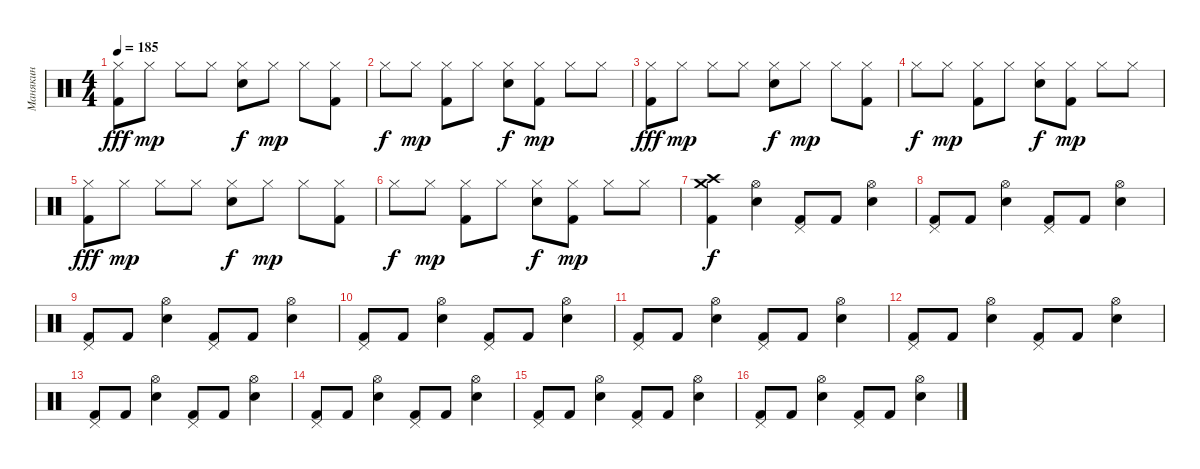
\track ("Манякин" "Манякин") {instrument percussion}
\staff {score}
\articulation defaults
\ts (4 4)
\tempo 185
\clef neutral
\ks c
("Hi-Hat (closed)" "Kick (hit) 2").8{dy fff} "Hi-Hat (closed)".8{dy mp} "Hi-Hat (closed)".8 "Hi-Hat (closed)".8 ("Hi-Hat (closed)" "Electric Snare (hit)").8{dy f} "Hi-Hat (closed)".8{dy mp} "Hi-Hat (closed)".8 ("Hi-Hat (closed)" "Kick (hit) 2").8 |
"Hi-Hat (closed)".8{dy f} "Hi-Hat (closed)".8{dy mp} ("Hi-Hat (closed)" "Kick (hit) 2").8 "Hi-Hat (closed)".8 ("Hi-Hat (closed)" "Electric Snare (hit)").8{dy f} ("Hi-Hat (closed)" "Kick (hit) 2").8{dy mp} "Hi-Hat (closed)".8 "Hi-Hat (closed)".8 |
("Hi-Hat (closed)" "Kick (hit) 2").8{dy fff} "Hi-Hat (closed)".8{dy mp} "Hi-Hat (closed)".8 "Hi-Hat (closed)".8 ("Hi-Hat (closed)" "Electric Snare (hit)").8{dy f} "Hi-Hat (closed)".8{dy mp} "Hi-Hat (closed)".8 ("Hi-Hat (closed)" "Kick (hit) 2").8 |
"Hi-Hat (closed)".8{dy f} "Hi-Hat (closed)".8{dy mp} ("Hi-Hat (closed)" "Kick (hit) 2").8 "Hi-Hat (closed)".8 ("Hi-Hat (closed)" "Electric Snare (hit)").8{dy f} ("Hi-Hat (closed)" "Kick (hit) 2").8{dy mp} "Hi-Hat (closed)".8 "Hi-Hat (closed)".8 |
("Hi-Hat (closed)" "Kick (hit) 2").8{dy fff} "Hi-Hat (closed)".8{dy mp} "Hi-Hat (closed)".8 "Hi-Hat (closed)".8 ("Hi-Hat (closed)" "Electric Snare (hit)").8{dy f} "Hi-Hat (closed)".8{dy mp} "Hi-Hat (closed)".8 ("Hi-Hat (closed)" "Kick (hit) 2").8 |
"Hi-Hat (closed)".8{dy f} "Hi-Hat (closed)".8{dy mp} ("Hi-Hat (closed)" "Kick (hit) 2").8 "Hi-Hat (closed)".8 ("Hi-Hat (closed)" "Electric Snare (hit)").8{dy f} ("Hi-Hat (closed)" "Kick (hit) 2").8{dy mp} "Hi-Hat (closed)".8 "Hi-Hat (closed)".8 |
("Crash high (hit)" "Crash medium (hit)" "Kick (hit) 2").4{dy f} ("Hi-Hat (open)" "Electric Snare (hit)").4 ("Pedal Hi-Hat (hit)" "Kick (hit) 2").8 "Kick (hit) 2".8 ("Hi-Hat (open)" "Electric Snare (hit)").4 |
("Pedal Hi-Hat (hit)" "Kick (hit) 2").8 "Kick (hit) 2".8 ("Hi-Hat (open)" "Electric Snare (hit)").4 ("Pedal Hi-Hat (hit)" "Kick (hit) 2").8 "Kick (hit) 2".8 ("Hi-Hat (open)" "Electric Snare (hit)").4 |
("Pedal Hi-Hat (hit)" "Kick (hit) 2").8 "Kick (hit) 2".8 ("Hi-Hat (open)" "Electric Snare (hit)").4 ("Pedal Hi-Hat (hit)" "Kick (hit) 2").8 "Kick (hit) 2".8 ("Hi-Hat (open)" "Electric Snare (hit)").4 |
("Pedal Hi-Hat (hit)" "Kick (hit) 2").8 "Kick (hit) 2".8 ("Hi-Hat (open)" "Electric Snare (hit)").4 ("Pedal Hi-Hat (hit)" "Kick (hit) 2").8 "Kick (hit) 2".8 ("Hi-Hat (open)" "Electric Snare (hit)").4 |
("Pedal Hi-Hat (hit)" "Kick (hit) 2").8 "Kick (hit) 2".8 ("Hi-Hat (open)" "Electric Snare (hit)").4 ("Pedal Hi-Hat (hit)" "Kick (hit) 2").8 "Kick (hit) 2".8 ("Hi-Hat (open)" "Electric Snare (hit)").4 |
("Pedal Hi-Hat (hit)" "Kick (hit) 2").8 "Kick (hit) 2".8 ("Hi-Hat (open)" "Electric Snare (hit)").4 ("Pedal Hi-Hat (hit)" "Kick (hit) 2").8 "Kick (hit) 2".8 ("Hi-Hat (open)" "Electric Snare (hit)").4 |
("Pedal Hi-Hat (hit)" "Kick (hit) 2").8 "Kick (hit) 2".8 ("Hi-Hat (open)" "Electric Snare (hit)").4 ("Pedal Hi-Hat (hit)" "Kick (hit) 2").8 "Kick (hit) 2".8 ("Hi-Hat (open)" "Electric Snare (hit)").4 |
("Pedal Hi-Hat (hit)" "Kick (hit) 2").8 "Kick (hit) 2".8 ("Hi-Hat (open)" "Electric Snare (hit)").4 ("Pedal Hi-Hat (hit)" "Kick (hit) 2").8 "Kick (hit) 2".8 ("Hi-Hat (open)" "Electric Snare (hit)").4 |
("Pedal Hi-Hat (hit)" "Kick (hit) 2").8 "Kick (hit) 2".8 ("Hi-Hat (open)" "Electric Snare (hit)").4 ("Pedal Hi-Hat (hit)" "Kick (hit) 2").8 "Kick (hit) 2".8 ("Hi-Hat (open)" "Electric Snare (hit)").4 |
("Pedal Hi-Hat (hit)" "Kick (hit) 2").8 "Kick (hit) 2".8 ("Hi-Hat (open)" "Electric Snare (hit)").4 ("Pedal Hi-Hat (hit)" "Kick (hit) 2").8 "Kick (hit) 2".8 ("Hi-Hat (open)" "Electric Snare (hit)").4
